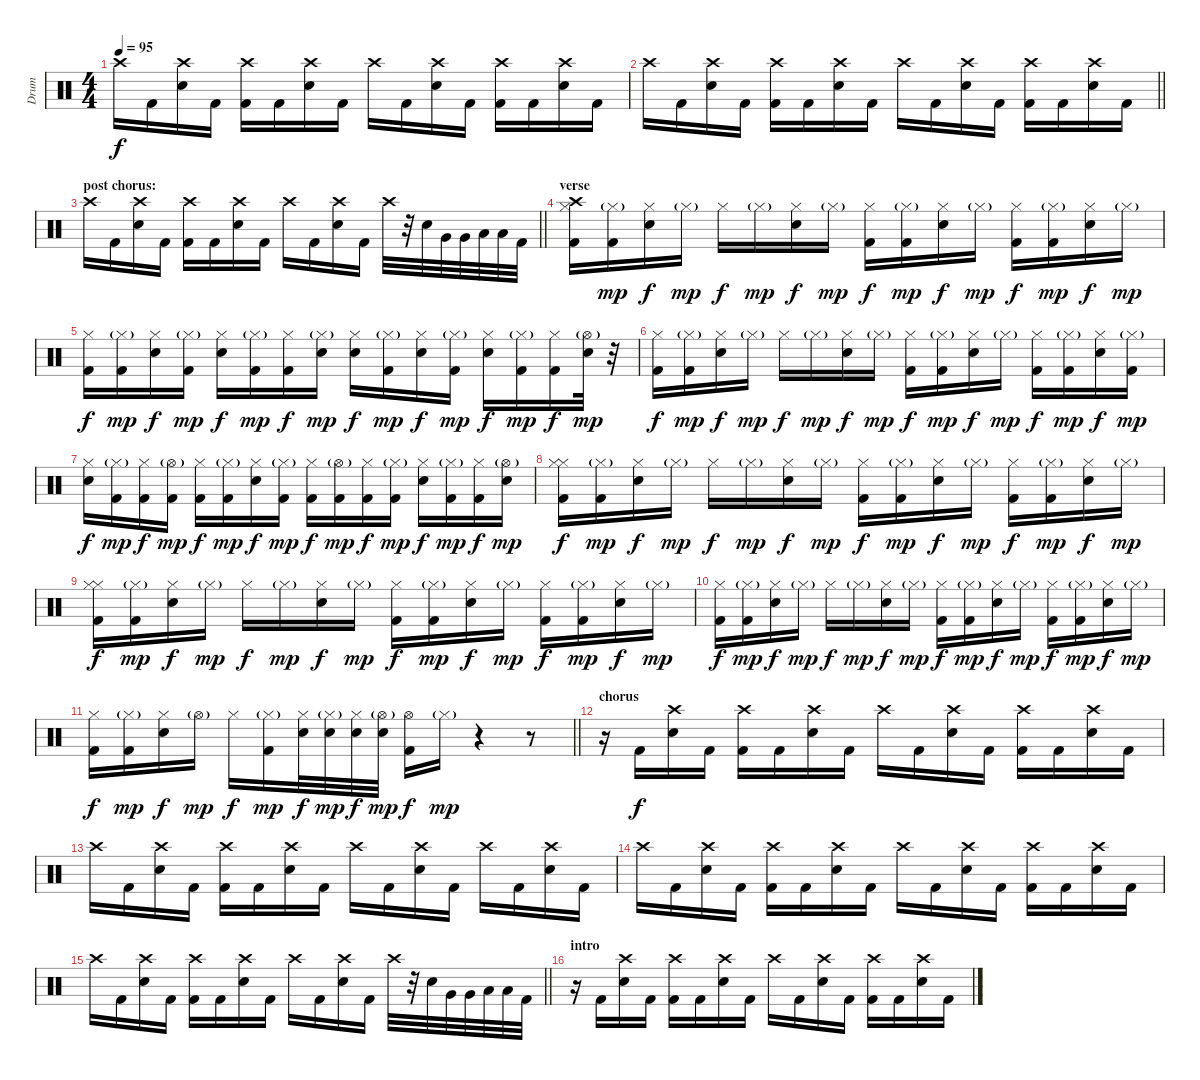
\track ("Drum" "Drum") {instrument percussion}
\staff {score}
\articulation defaults
\ts (4 4)
\tempo 95
\clef neutral
\ks c "Crash high (hit)".16{dy f} "Kick (hit) 2".16
("Crash high (hit)" "Electric Snare (hit)").16 "Kick (hit) 2".16 ("Crash high (hit)" "Kick (hit) 2").16 "Kick (hit) 2".16 ("Crash high (hit)" "Electric Snare (hit)").16 "Kick (hit) 2".16 "Crash high (hit)".16 "Kick (hit) 2".16 ("Crash high (hit)" "Electric Snare (hit)").16 "Kick (hit) 2".16 ("Crash high (hit)" "Kick (hit) 2").16 "Kick (hit) 2".16 ("Crash high (hit)" "Electric Snare (hit)").16 "Kick (hit) 2".16 |
\barLineRight lightlight "Crash high (hit)".16 "Kick (hit) 2".16
("Crash high (hit)" "Electric Snare (hit)").16 "Kick (hit) 2".16 ("Crash high (hit)" "Kick (hit) 2").16 "Kick (hit) 2".16 ("Crash high (hit)" "Electric Snare (hit)").16 "Kick (hit) 2".16 "Crash high (hit)".16 "Kick (hit) 2".16 ("Crash high (hit)" "Electric Snare (hit)").16 "Kick (hit) 2".16 ("Crash high (hit)" "Kick (hit) 2").16 "Kick (hit) 2".16 ("Crash high (hit)" "Electric Snare (hit)").16 "Kick (hit) 2".16 |
\section ("" "post chorus:")
\barLineRight lightlight "Crash high (hit)".16 "Kick (hit) 2".16
("Crash high (hit)" "Electric Snare (hit)").16 "Kick (hit) 2".16 ("Crash high (hit)" "Kick (hit) 2").16 "Kick (hit) 2".16 ("Crash high (hit)" "Electric Snare (hit)").16 "Kick (hit) 2".16 "Crash high (hit)".16 "Kick (hit) 2".16 ("Crash high (hit)" "Electric Snare (hit)").16 "Kick (hit) 2".16 "Crash high (hit)".32 r.32 "Electric Snare (hit)".32 "Very Low Tom (hit)".32 "Very Low Tom (hit)".32 "Low Floor Tom (hit)".32 "Low Floor Tom (hit)".32 "Kick (hit) 2".32 |
\section ("" "verse")
("Crash high (hit)" "Hi-Hat (closed)" "Kick (hit) 2").16 ("Hi-Hat (closed)"{g} "Kick (hit) 2").16{dy mp} ("Hi-Hat (closed)" "Electric Snare (hit)").16{dy f} "Hi-Hat (closed)"{g}.16{dy mp} "Hi-Hat (closed)".16{dy f} "Hi-Hat (closed)"{g}.16{dy mp} ("Hi-Hat (closed)" "Electric Snare (hit)").16{dy f} "Hi-Hat (closed)"{g}.16{dy mp} ("Hi-Hat (closed)" "Kick (hit) 2").16{dy f} ("Hi-Hat (closed)"{g} "Kick (hit) 2").16{dy mp} ("Hi-Hat (closed)" "Electric Snare (hit)").16{dy f} "Hi-Hat (closed)"{g}.16{dy mp} ("Hi-Hat (closed)" "Kick (hit) 2").16{dy f} ("Hi-Hat (closed)"{g} "Kick (hit) 2").16{dy mp} ("Hi-Hat (closed)" "Electric Snare (hit)").16{dy f} "Hi-Hat (closed)"{g}.16{dy mp} |
("Hi-Hat (closed)" "Kick (hit) 2").16{dy f} ("Hi-Hat (closed)"{g} "Kick (hit) 2").16{dy mp} ("Hi-Hat (closed)" "Electric Snare (hit)").16{dy f} ("Hi-Hat (closed)"{g} "Kick (hit) 2").16{dy mp} ("Hi-Hat (closed)" "Electric Snare (hit)").16{dy f} ("Hi-Hat (closed)"{g} "Kick (hit) 2").16{dy mp} ("Hi-Hat (closed)" "Kick (hit) 2").16{dy f} ("Hi-Hat (closed)"{g} "Electric Snare (hit)").16{dy mp} ("Hi-Hat (closed)" "Electric Snare (hit)").16{dy f} ("Hi-Hat (closed)"{g} "Kick (hit) 2").16{dy mp} ("Hi-Hat (closed)" "Electric Snare (hit)").16{dy f} ("Hi-Hat (closed)"{g} "Kick (hit) 2").16{dy mp} ("Hi-Hat (closed)" "Electric Snare (hit)").16{dy f} ("Hi-Hat (closed)"{g} "Kick (hit) 2").16{dy mp} ("Hi-Hat (closed)" "Kick (hit) 2").16{dy f} ("Hi-Hat (open)"{g} "Electric Snare (hit)").32{dy mp} r.32 |
("Hi-Hat (closed)" "Kick (hit) 2").16{dy f} ("Hi-Hat (closed)"{g} "Kick (hit) 2").16{dy mp} ("Hi-Hat (closed)" "Electric Snare (hit)").16{dy f} "Hi-Hat (closed)"{g}.16{dy mp} "Hi-Hat (closed)".16{dy f} "Hi-Hat (closed)"{g}.16{dy mp} ("Hi-Hat (closed)" "Electric Snare (hit)").16{dy f} "Hi-Hat (closed)"{g}.16{dy mp} ("Hi-Hat (closed)" "Kick (hit) 2").16{dy f} ("Hi-Hat (closed)"{g} "Kick (hit) 2").16{dy mp} ("Hi-Hat (closed)" "Electric Snare (hit)").16{dy f} "Hi-Hat (closed)"{g}.16{dy mp} ("Hi-Hat (closed)" "Kick (hit) 2").16{dy f} ("Hi-Hat (closed)"{g} "Kick (hit) 2").16{dy mp} ("Hi-Hat (closed)" "Electric Snare (hit)").16{dy f} ("Hi-Hat (closed)"{g} "Kick (hit) 2").16{dy mp} |
("Hi-Hat (closed)" "Electric Snare (hit)").16{dy f} ("Hi-Hat (closed)"{g} "Kick (hit) 2").16{dy mp} ("Hi-Hat (closed)" "Kick (hit) 2").16{dy f} ("Hi-Hat (open)"{g} "Kick (hit) 2").16{dy mp} ("Hi-Hat (closed)" "Kick (hit) 2").16{dy f} ("Hi-Hat (closed)"{g} "Kick (hit) 2").16{dy mp} ("Hi-Hat (closed)" "Electric Snare (hit)").16{dy f} ("Hi-Hat (closed)"{g} "Kick (hit) 2").16{dy mp} ("Hi-Hat (closed)" "Kick (hit) 2").16{dy f} ("Hi-Hat (open)"{g} "Kick (hit) 2").16{dy mp} ("Hi-Hat (closed)" "Kick (hit) 2").16{dy f} ("Hi-Hat (closed)"{g} "Kick (hit) 2").16{dy mp} ("Hi-Hat (closed)" "Electric Snare (hit)").16{dy f} ("Hi-Hat (closed)"{g} "Kick (hit) 2").16{dy mp} ("Hi-Hat (closed)" "Kick (hit) 2").16{dy f} ("Hi-Hat (open)"{g} "Electric Snare (hit)").16{dy mp} |
("Hi-Hat (closed)" "Hi-Hat (closed)" "Kick (hit) 2").16{dy f} ("Hi-Hat (closed)"{g} "Kick (hit) 2").16{dy mp} ("Hi-Hat (closed)" "Electric Snare (hit)").16{dy f} "Hi-Hat (closed)"{g}.16{dy mp} "Hi-Hat (closed)".16{dy f} "Hi-Hat (closed)"{g}.16{dy mp} ("Hi-Hat (closed)" "Electric Snare (hit)").16{dy f} "Hi-Hat (closed)"{g}.16{dy mp} ("Hi-Hat (closed)" "Kick (hit) 2").16{dy f} ("Hi-Hat (closed)"{g} "Kick (hit) 2").16{dy mp} ("Hi-Hat (closed)" "Electric Snare (hit)").16{dy f} "Hi-Hat (closed)"{g}.16{dy mp} ("Hi-Hat (closed)" "Kick (hit) 2").16{dy f} ("Hi-Hat (closed)"{g} "Kick (hit) 2").16{dy mp} ("Hi-Hat (closed)" "Electric Snare (hit)").16{dy f} "Hi-Hat (closed)"{g}.16{dy mp} |
("Hi-Hat (closed)" "Hi-Hat (closed)" "Kick (hit) 2").16{dy f} ("Hi-Hat (closed)"{g} "Kick (hit) 2").16{dy mp} ("Hi-Hat (closed)" "Electric Snare (hit)").16{dy f} "Hi-Hat (closed)"{g}.16{dy mp} "Hi-Hat (closed)".16{dy f} "Hi-Hat (closed)"{g}.16{dy mp} ("Hi-Hat (closed)" "Electric Snare (hit)").16{dy f} "Hi-Hat (closed)"{g}.16{dy mp} ("Hi-Hat (closed)" "Kick (hit) 2").16{dy f} ("Hi-Hat (closed)"{g} "Kick (hit) 2").16{dy mp} ("Hi-Hat (closed)" "Electric Snare (hit)").16{dy f} "Hi-Hat (closed)"{g}.16{dy mp} ("Hi-Hat (closed)" "Kick (hit) 2").16{dy f} ("Hi-Hat (closed)"{g} "Kick (hit) 2").16{dy mp} ("Hi-Hat (closed)" "Electric Snare (hit)").16{dy f} "Hi-Hat (closed)"{g}.16{dy mp} |
("Hi-Hat (closed)" "Kick (hit) 2").16{dy f} ("Hi-Hat (closed)"{g} "Kick (hit) 2").16{dy mp} ("Hi-Hat (closed)" "Electric Snare (hit)").16{dy f} "Hi-Hat (closed)"{g}.16{dy mp} "Hi-Hat (closed)".16{dy f} "Hi-Hat (closed)"{g}.16{dy mp} ("Hi-Hat (closed)" "Electric Snare (hit)").16{dy f} "Hi-Hat (closed)"{g}.16{dy mp} ("Hi-Hat (closed)" "Kick (hit) 2").16{dy f} ("Hi-Hat (closed)"{g} "Kick (hit) 2").16{dy mp} ("Hi-Hat (closed)" "Electric Snare (hit)").16{dy f} "Hi-Hat (closed)"{g}.16{dy mp} ("Hi-Hat (closed)" "Kick (hit) 2").16{dy f} ("Hi-Hat (closed)"{g} "Kick (hit) 2").16{dy mp} ("Hi-Hat (closed)" "Electric Snare (hit)").16{dy f} "Hi-Hat (closed)"{g}.16{dy mp} |
\barLineRight lightlight
("Hi-Hat (closed)" "Kick (hit) 2").16{dy f} ("Hi-Hat (closed)"{g} "Kick (hit) 2").16{dy mp} ("Hi-Hat (closed)" "Electric Snare (hit)").16{dy f} "Hi-Hat (open)"{g}.16{dy mp} "Hi-Hat (closed)".16{dy f} ("Hi-Hat (closed)"{g} "Kick (hit) 2").16{dy mp} ("Hi-Hat (closed)" "Electric Snare (hit)").32{dy f} ("Hi-Hat (closed)"{g} "Electric Snare (hit)").32{dy mp} ("Hi-Hat (closed)" "Electric Snare (hit)").32{dy f} ("Hi-Hat (open)"{g} "Electric Snare (hit)").32{dy mp} ("Hi-Hat (open)" "Kick (hit) 2").16{dy f} "Hi-Hat (closed)"{g}.16{dy mp} r.4 r.8 |
\section ("" "chorus")
r.16 "Kick (hit) 2".16{dy f} ("Crash high (hit)" "Electric Snare (hit)").16 "Kick (hit) 2".16 ("Crash high (hit)" "Kick (hit) 2").16 "Kick (hit) 2".16 ("Crash high (hit)" "Electric Snare (hit)").16 "Kick (hit) 2".16 "Crash high (hit)".16 "Kick (hit) 2".16 ("Crash high (hit)" "Electric Snare (hit)").16 "Kick (hit) 2".16 ("Crash high (hit)" "Kick (hit) 2").16 "Kick (hit) 2".16 ("Crash high (hit)" "Electric Snare (hit)").16 "Kick (hit) 2".16 |
"Crash high (hit)".16 "Kick (hit) 2".16 ("Crash high (hit)" "Electric Snare (hit)").16 "Kick (hit) 2".16 ("Crash high (hit)" "Kick (hit) 2").16 "Kick (hit) 2".16 ("Crash high (hit)" "Electric Snare (hit)").16 "Kick (hit) 2".16 "Crash high (hit)".16 "Kick (hit) 2".16 ("Crash high (hit)" "Electric Snare (hit)").16 "Kick (hit) 2".16 "Crash high (hit)".16 "Kick (hit) 2".16 ("Crash high (hit)" "Electric Snare (hit)").16 "Kick (hit) 2".16 |
"Crash high (hit)".16 "Kick (hit) 2".16 ("Crash high (hit)" "Electric Snare (hit)").16 "Kick (hit) 2".16 ("Crash high (hit)" "Kick (hit) 2").16 "Kick (hit) 2".16 ("Crash high (hit)" "Electric Snare (hit)").16 "Kick (hit) 2".16 "Crash high (hit)".16 "Kick (hit) 2".16 ("Crash high (hit)" "Electric Snare (hit)").16 "Kick (hit) 2".16 ("Crash high (hit)" "Kick (hit) 2").16 "Kick (hit) 2".16 ("Crash high (hit)" "Electric Snare (hit)").16 "Kick (hit) 2".16 |
\barLineRight lightlight "Crash high (hit)".16 "Kick (hit) 2".16
("Crash high (hit)" "Electric Snare (hit)").16 "Kick (hit) 2".16 ("Crash high (hit)" "Kick (hit) 2").16 "Kick (hit) 2".16 ("Crash high (hit)" "Electric Snare (hit)").16 "Kick (hit) 2".16 "Crash high (hit)".16 "Kick (hit) 2".16 ("Crash high (hit)" "Electric Snare (hit)").16 "Kick (hit) 2".16 "Crash high (hit)".32 r.32 "Electric Snare (hit)".32 "Very Low Tom (hit)".32 "Very Low Tom (hit)".32 "Low Floor Tom (hit)".32 "Low Floor Tom (hit)".32 "Kick (hit) 2".32 |
\section ("" "intro")
r.16 "Kick (hit) 2".16 ("Crash high (hit)" "Electric Snare (hit)").16 "Kick (hit) 2".16 ("Crash high (hit)" "Kick (hit) 2").16 "Kick (hit) 2".16 ("Crash high (hit)" "Electric Snare (hit)").16 "Kick (hit) 2".16 "Crash high (hit)".16 "Kick (hit) 2".16 ("Crash high (hit)" "Electric Snare (hit)").16 "Kick (hit) 2".16 ("Crash high (hit)" "Kick (hit) 2").16 "Kick (hit) 2".16 ("Crash high (hit)" "Electric Snare (hit)").16 "Kick (hit) 2".16
